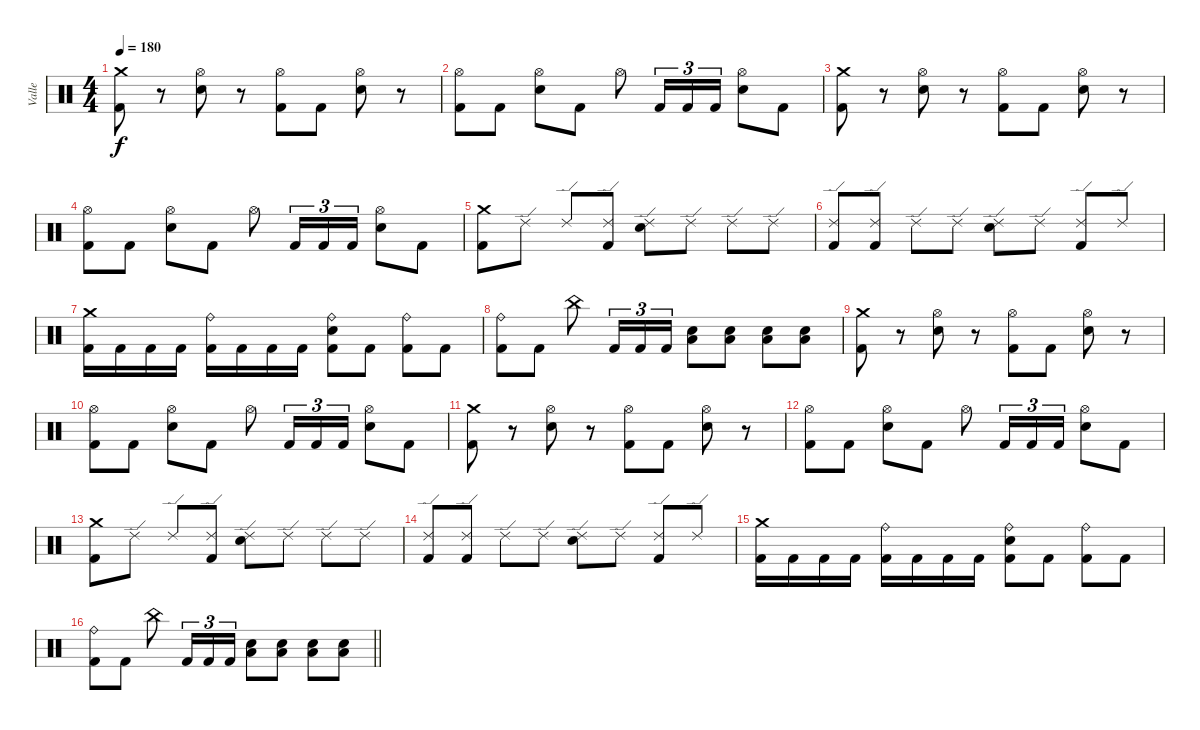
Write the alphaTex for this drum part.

\track ("Valle" "Valle") {instrument percussion}
\staff {score}
\articulation defaults
\ts (4 4)
\section ("" "")
\tempo 180
\clef neutral
\ks c
("Crash medium (hit)" "Kick (hit) 2").8{dy f} r.8 ("Hi-Hat (open)" "Snare (hit) 2").8 r.8 ("Hi-Hat (open)" "Kick (hit) 2").8 "Kick (hit) 2".8 ("Hi-Hat (open)" "Snare (hit) 2").8 r.8 |
("Hi-Hat (open)" "Kick (hit) 2").8 "Kick (hit) 2".8 ("Hi-Hat (open)" "Snare (hit) 2").8 "Kick (hit) 2".8 "Hi-Hat (open)".8 "Kick (hit) 2".16{tu (3 2)} "Kick (hit) 2".16{tu (3 2)} "Kick (hit) 2".16{tu (3 2)} ("Hi-Hat (open)" "Snare (hit) 2").8 "Kick (hit) 2".8 |
("Crash medium (hit)" "Kick (hit) 2").8 r.8 ("Hi-Hat (open)" "Snare (hit) 2").8 r.8 ("Hi-Hat (open)" "Kick (hit) 2").8 "Kick (hit) 2".8 ("Hi-Hat (open)" "Snare (hit) 2").8 r.8 |
("Hi-Hat (open)" "Kick (hit) 2").8 "Kick (hit) 2".8 ("Hi-Hat (open)" "Snare (hit) 2").8 "Kick (hit) 2".8 "Hi-Hat (open)".8 "Kick (hit) 2".16{tu (3 2)} "Kick (hit) 2".16{tu (3 2)} "Kick (hit) 2".16{tu (3 2)} ("Hi-Hat (open)" "Snare (hit) 2").8 "Kick (hit) 2".8 |
("Crash medium (hit)" "Kick (hit) 2").8 "Ride (edge) 2".8 "Ride (edge) 2".8 ("Ride (edge) 2" "Kick (hit) 2").8 ("Ride (edge) 2" "Snare (hit) 2").8 "Ride (edge) 2".8 "Ride (edge) 2".8 "Ride (edge) 2".8 |
("Ride (edge) 2" "Kick (hit) 2").8 ("Ride (edge) 2" "Kick (hit) 2").8 "Ride (edge) 2".8 "Ride (edge) 2".8 ("Ride (edge) 2" "Snare (hit) 2").8 "Ride (edge) 2".8 ("Ride (edge) 2" "Kick (hit) 2").8 "Ride (edge) 2".8 |
("Crash medium (hit)" "Kick (hit) 2").16 "Kick (hit) 2".16 "Kick (hit) 2".16 "Kick (hit) 2".16 ("Ride (bell)" "Kick (hit) 2").16 "Kick (hit) 2".16 "Kick (hit) 2".16 "Kick (hit) 2".16 ("Ride (bell)" "Snare (hit) 2" "Kick (hit) 2").8 "Kick (hit) 2".8 ("Ride (bell)" "Kick (hit) 2").8 "Kick (hit) 2".8 |
("Ride (bell)" "Kick (hit) 2").8 "Kick (hit) 2".8 "China (hit)".8 "Kick (hit) 2".16{tu (3 2)} "Kick (hit) 2".16{tu (3 2)} "Kick (hit) 2".16{tu (3 2)} ("Low Floor Tom (hit)" "Snare (hit) 2").8 ("Low Floor Tom (hit)" "Snare (hit) 2").8 ("Low Floor Tom (hit)" "Snare (hit) 2").8 ("Low Floor Tom (hit)" "Snare (hit) 2").8 |
("Crash medium (hit)" "Kick (hit) 2").8 r.8 ("Hi-Hat (open)" "Snare (hit) 2").8 r.8 ("Hi-Hat (open)" "Kick (hit) 2").8 "Kick (hit) 2".8 ("Hi-Hat (open)" "Snare (hit) 2").8 r.8 |
("Hi-Hat (open)" "Kick (hit) 2").8 "Kick (hit) 2".8 ("Hi-Hat (open)" "Snare (hit) 2").8 "Kick (hit) 2".8 "Hi-Hat (open)".8 "Kick (hit) 2".16{tu (3 2)} "Kick (hit) 2".16{tu (3 2)} "Kick (hit) 2".16{tu (3 2)} ("Hi-Hat (open)" "Snare (hit) 2").8 "Kick (hit) 2".8 |
("Crash medium (hit)" "Kick (hit) 2").8 r.8 ("Hi-Hat (open)" "Snare (hit) 2").8 r.8 ("Hi-Hat (open)" "Kick (hit) 2").8 "Kick (hit) 2".8 ("Hi-Hat (open)" "Snare (hit) 2").8 r.8 |
("Hi-Hat (open)" "Kick (hit) 2").8 "Kick (hit) 2".8 ("Hi-Hat (open)" "Snare (hit) 2").8 "Kick (hit) 2".8 "Hi-Hat (open)".8 "Kick (hit) 2".16{tu (3 2)} "Kick (hit) 2".16{tu (3 2)} "Kick (hit) 2".16{tu (3 2)} ("Hi-Hat (open)" "Snare (hit) 2").8 "Kick (hit) 2".8 |
("Crash medium (hit)" "Kick (hit) 2").8 "Ride (edge) 2".8 "Ride (edge) 2".8 ("Ride (edge) 2" "Kick (hit) 2").8 ("Ride (edge) 2" "Snare (hit) 2").8 "Ride (edge) 2".8 "Ride (edge) 2".8 "Ride (edge) 2".8 |
("Ride (edge) 2" "Kick (hit) 2").8 ("Ride (edge) 2" "Kick (hit) 2").8 "Ride (edge) 2".8 "Ride (edge) 2".8 ("Ride (edge) 2" "Snare (hit) 2").8 "Ride (edge) 2".8 ("Ride (edge) 2" "Kick (hit) 2").8 "Ride (edge) 2".8 |
("Crash medium (hit)" "Kick (hit) 2").16 "Kick (hit) 2".16 "Kick (hit) 2".16 "Kick (hit) 2".16 ("Ride (bell)" "Kick (hit) 2").16 "Kick (hit) 2".16 "Kick (hit) 2".16 "Kick (hit) 2".16 ("Ride (bell)" "Snare (hit) 2" "Kick (hit) 2").8 "Kick (hit) 2".8 ("Ride (bell)" "Kick (hit) 2").8 "Kick (hit) 2".8 |
\barLineRight lightlight
("Ride (bell)" "Kick (hit) 2").8 "Kick (hit) 2".8 "China (hit)".8 "Kick (hit) 2".16{tu (3 2)} "Kick (hit) 2".16{tu (3 2)} "Kick (hit) 2".16{tu (3 2)} ("Low Floor Tom (hit)" "Snare (hit) 2").8 ("Low Floor Tom (hit)" "Snare (hit) 2").8 ("Low Floor Tom (hit)" "Snare (hit) 2").8 ("Low Floor Tom (hit)" "Snare (hit) 2").8
